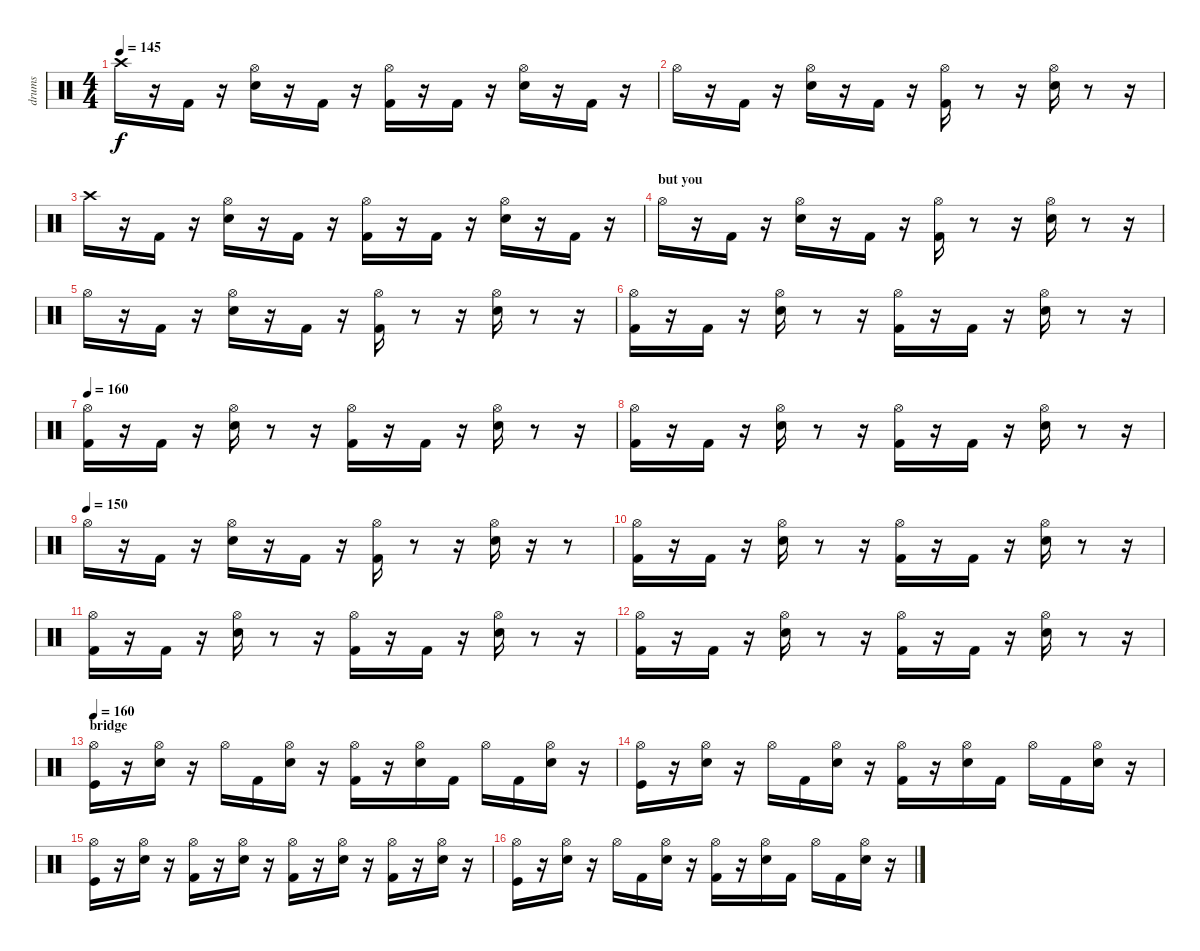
\track ("drums" "drums") {instrument percussion}
\staff {score}
\articulation defaults
\ts (4 4)
\tempo 145
\clef neutral
\ks c "Crash high (hit)".16{dy f}
r.16 "Kick (hit) 2".16 r.16 ("Hi-Hat (open)" "Snare (hit) 2").16 r.16 "Kick (hit) 2".16 r.16 ("Hi-Hat (open)" "Kick (hit) 2").16 r.16 "Kick (hit) 2".16 r.16 ("Hi-Hat (open)" "Snare (hit) 2").16 r.16 "Kick (hit) 2".16 r.16 |
"Hi-Hat (open)".16 r.16 "Kick (hit) 2".16 r.16 ("Hi-Hat (open)" "Snare (hit) 2").16 r.16 "Kick (hit) 2".16 r.16 ("Hi-Hat (open)" "Kick (hit) 2").16 r.8 r.16 ("Hi-Hat (open)" "Snare (hit) 2").16 r.8 r.16 |
"Crash high (hit)".16 r.16 "Kick (hit) 2".16 r.16 ("Hi-Hat (open)" "Snare (hit) 2").16 r.16 "Kick (hit) 2".16 r.16 ("Hi-Hat (open)" "Kick (hit) 2").16 r.16 "Kick (hit) 2".16 r.16 ("Hi-Hat (open)" "Snare (hit) 2").16 r.16 "Kick (hit) 2".16 r.16 |
\section ("" "but you")
"Hi-Hat (open)".16 r.16 "Kick (hit) 2".16 r.16 ("Hi-Hat (open)" "Snare (hit) 2").16 r.16 "Kick (hit) 2".16 r.16 ("Hi-Hat (open)" "Kick (hit) 2").16 r.8 r.16 ("Hi-Hat (open)" "Snare (hit) 2").16 r.8 r.16 |
"Hi-Hat (open)".16 r.16 "Kick (hit) 2".16 r.16 ("Hi-Hat (open)" "Snare (hit) 2").16 r.16 "Kick (hit) 2".16 r.16 ("Hi-Hat (open)" "Kick (hit) 2").16 r.8 r.16 ("Hi-Hat (open)" "Snare (hit) 2").16 r.8 r.16 |
("Hi-Hat (open)" "Kick (hit) 2").16 r.16 "Kick (hit) 2".16 r.16 ("Hi-Hat (open)" "Snare (hit) 2").16 r.8 r.16 ("Hi-Hat (open)" "Kick (hit) 2").16 r.16 "Kick (hit) 2".16 r.16 ("Hi-Hat (open)" "Snare (hit) 2").16 r.8 r.16 |
\tempo 160
("Hi-Hat (open)" "Kick (hit) 2").16 r.16 "Kick (hit) 2".16 r.16 ("Hi-Hat (open)" "Snare (hit) 2").16 r.8 r.16 ("Hi-Hat (open)" "Kick (hit) 2").16 r.16 "Kick (hit) 2".16 r.16 ("Hi-Hat (open)" "Snare (hit) 2").16 r.8 r.16 |
("Hi-Hat (open)" "Kick (hit) 2").16 r.16 "Kick (hit) 2".16 r.16 ("Hi-Hat (open)" "Snare (hit) 2").16 r.8 r.16 ("Hi-Hat (open)" "Kick (hit) 2").16 r.16 "Kick (hit) 2".16 r.16 ("Hi-Hat (open)" "Snare (hit) 2").16 r.8 r.16 |
\tempo (150)
"Hi-Hat (open)".16 r.16 "Kick (hit) 2".16 r.16 ("Hi-Hat (open)" "Snare (hit) 2").16 r.16 "Kick (hit) 2".16 r.16 ("Hi-Hat (open)" "Kick (hit) 2").16 r.8 r.16 ("Hi-Hat (open)" "Snare (hit) 2").16 r.16 r.8 |
("Hi-Hat (open)" "Kick (hit) 2").16 r.16 "Kick (hit) 2".16 r.16 ("Hi-Hat (open)" "Snare (hit) 2").16 r.8 r.16 ("Hi-Hat (open)" "Kick (hit) 2").16 r.16 "Kick (hit) 2".16 r.16 ("Hi-Hat (open)" "Snare (hit) 2").16 r.8 r.16 |
("Hi-Hat (open)" "Kick (hit) 2").16 r.16 "Kick (hit) 2".16 r.16 ("Hi-Hat (open)" "Snare (hit) 2").16 r.8 r.16 ("Hi-Hat (open)" "Kick (hit) 2").16 r.16 "Kick (hit) 2".16 r.16 ("Hi-Hat (open)" "Snare (hit) 2").16 r.8 r.16 |
("Hi-Hat (open)" "Kick (hit) 2").16 r.16 "Kick (hit) 2".16 r.16 ("Hi-Hat (open)" "Snare (hit) 2").16 r.8 r.16 ("Hi-Hat (open)" "Kick (hit) 2").16 r.16 "Kick (hit) 2".16 r.16 ("Hi-Hat (open)" "Snare (hit) 2").16 r.8 r.16 |
\section ("" "bridge")
\tempo 160
("Hi-Hat (open)" "Kick (hit)").16 r.16 ("Hi-Hat (open)" "Snare (hit) 2").16 r.16 "Hi-Hat (open)".16 "Kick (hit) 2".16 ("Hi-Hat (open)" "Snare (hit) 2").16 r.16 ("Hi-Hat (open)" "Kick (hit) 2").16 r.16 ("Hi-Hat (open)" "Snare (hit) 2").16 "Kick (hit) 2".16 "Hi-Hat (open)".16 "Kick (hit) 2".16 ("Hi-Hat (open)" "Snare (hit) 2").16 r.16 |
("Hi-Hat (open)" "Kick (hit)").16 r.16 ("Hi-Hat (open)" "Snare (hit) 2").16 r.16 "Hi-Hat (open)".16 "Kick (hit) 2".16 ("Hi-Hat (open)" "Snare (hit) 2").16 r.16 ("Hi-Hat (open)" "Kick (hit) 2").16 r.16 ("Hi-Hat (open)" "Snare (hit) 2").16 "Kick (hit) 2".16 "Hi-Hat (open)".16 "Kick (hit) 2".16 ("Hi-Hat (open)" "Snare (hit) 2").16 r.16 |
("Hi-Hat (open)" "Kick (hit)").16 r.16 ("Hi-Hat (open)" "Snare (hit) 2").16 r.16 ("Hi-Hat (open)" "Kick (hit) 2").16 r.16 ("Hi-Hat (open)" "Snare (hit) 2").16 r.16 ("Hi-Hat (open)" "Kick (hit) 2").16 r.16 ("Hi-Hat (open)" "Snare (hit) 2").16 r.16 ("Hi-Hat (open)" "Kick (hit) 2").16 r.16 ("Hi-Hat (open)" "Snare (hit) 2").16 r.16 |
("Hi-Hat (open)" "Kick (hit)").16 r.16 ("Hi-Hat (open)" "Snare (hit) 2").16 r.16 "Hi-Hat (open)".16 "Kick (hit) 2".16 ("Hi-Hat (open)" "Snare (hit) 2").16 r.16 ("Hi-Hat (open)" "Kick (hit) 2").16 r.16 ("Hi-Hat (open)" "Snare (hit) 2").16 "Kick (hit) 2".16 "Hi-Hat (open)".16 "Kick (hit) 2".16 ("Hi-Hat (open)" "Snare (hit) 2").16 r.16
